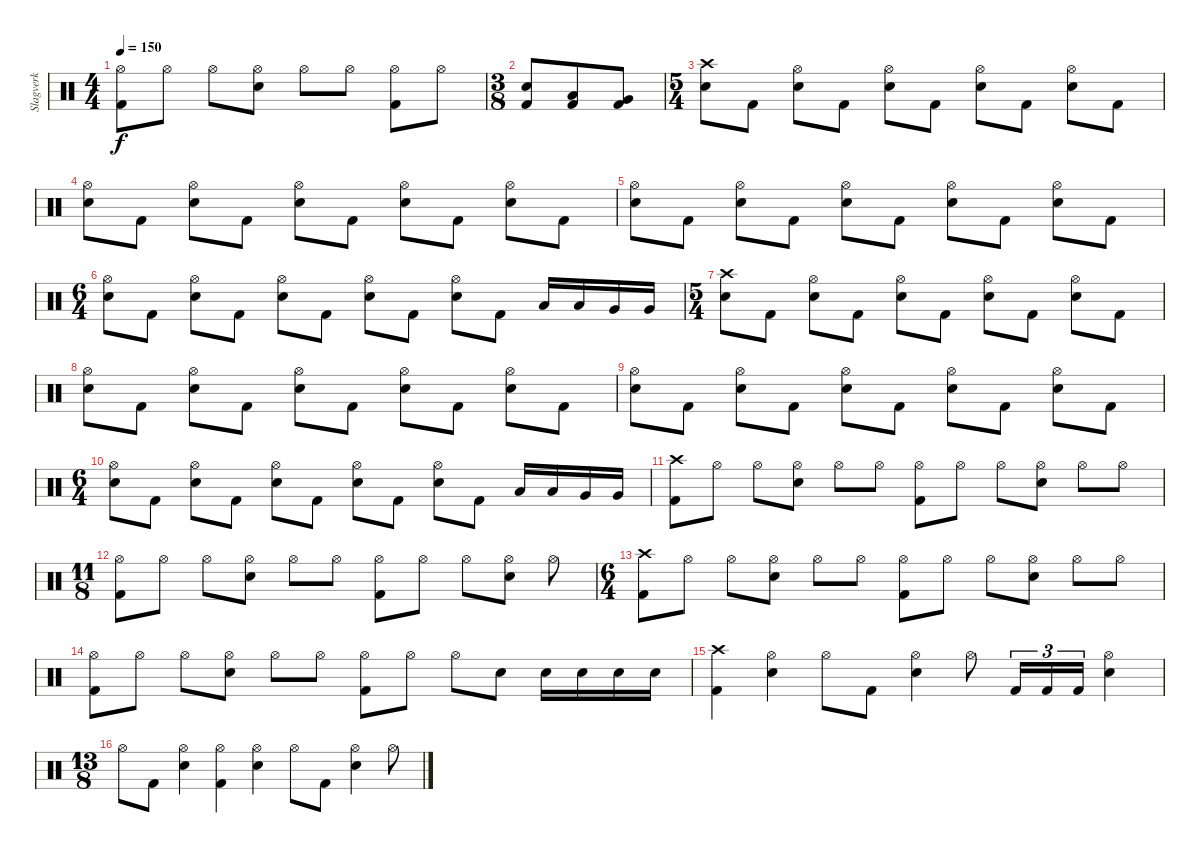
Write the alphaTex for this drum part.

\track ("Slagverk" "Slagverk") {instrument percussion}
\staff {score}
\articulation defaults
\ts (4 4)
\tempo 150
\clef neutral
\ks c
("Hi-Hat (open)" "Kick (hit) 2").8{dy f} "Hi-Hat (open)".8 "Hi-Hat (open)".8 ("Hi-Hat (open)" "Electric Snare (hit)").8 "Hi-Hat (open)".8 "Hi-Hat (open)".8 ("Hi-Hat (open)" "Kick (hit) 2").8 "Hi-Hat (open)".8 |
\ts (3 8)
("Electric Snare (hit)" "Kick (hit) 2").8 ("Low Tom (hit)" "Kick (hit) 2").8 ("Very Low Tom (hit)" "Kick (hit) 2").8 |
\ts (5 4)
("Crash high (hit)" "Electric Snare (hit)").8 "Kick (hit) 2".8 ("Hi-Hat (open)" "Electric Snare (hit)").8 "Kick (hit) 2".8 ("Hi-Hat (open)" "Electric Snare (hit)").8 "Kick (hit) 2".8 ("Hi-Hat (open)" "Electric Snare (hit)").8 "Kick (hit) 2".8 ("Hi-Hat (open)" "Electric Snare (hit)").8 "Kick (hit) 2".8 |
("Hi-Hat (open)" "Electric Snare (hit)").8 "Kick (hit) 2".8 ("Hi-Hat (open)" "Electric Snare (hit)").8 "Kick (hit) 2".8 ("Hi-Hat (open)" "Electric Snare (hit)").8 "Kick (hit) 2".8 ("Hi-Hat (open)" "Electric Snare (hit)").8 "Kick (hit) 2".8 ("Hi-Hat (open)" "Electric Snare (hit)").8 "Kick (hit) 2".8 |
("Hi-Hat (open)" "Electric Snare (hit)").8 "Kick (hit) 2".8 ("Hi-Hat (open)" "Electric Snare (hit)").8 "Kick (hit) 2".8 ("Hi-Hat (open)" "Electric Snare (hit)").8 "Kick (hit) 2".8 ("Hi-Hat (open)" "Electric Snare (hit)").8 "Kick (hit) 2".8 ("Hi-Hat (open)" "Electric Snare (hit)").8 "Kick (hit) 2".8 |
\ts (6 4)
("Hi-Hat (open)" "Electric Snare (hit)").8 "Kick (hit) 2".8 ("Hi-Hat (open)" "Electric Snare (hit)").8 "Kick (hit) 2".8 ("Hi-Hat (open)" "Electric Snare (hit)").8 "Kick (hit) 2".8 ("Hi-Hat (open)" "Electric Snare (hit)").8 "Kick (hit) 2".8 ("Hi-Hat (open)" "Electric Snare (hit)").8 "Kick (hit) 2".8 "Low Tom (hit)".16 "Low Tom (hit)".16 "Very Low Tom (hit)".16 "Very Low Tom (hit)".16 |
\ts (5 4)
("Crash high (hit)" "Electric Snare (hit)").8 "Kick (hit) 2".8 ("Hi-Hat (open)" "Electric Snare (hit)").8 "Kick (hit) 2".8 ("Hi-Hat (open)" "Electric Snare (hit)").8 "Kick (hit) 2".8 ("Hi-Hat (open)" "Electric Snare (hit)").8 "Kick (hit) 2".8 ("Hi-Hat (open)" "Electric Snare (hit)").8 "Kick (hit) 2".8 |
("Hi-Hat (open)" "Electric Snare (hit)").8 "Kick (hit) 2".8 ("Hi-Hat (open)" "Electric Snare (hit)").8 "Kick (hit) 2".8 ("Hi-Hat (open)" "Electric Snare (hit)").8 "Kick (hit) 2".8 ("Hi-Hat (open)" "Electric Snare (hit)").8 "Kick (hit) 2".8 ("Hi-Hat (open)" "Electric Snare (hit)").8 "Kick (hit) 2".8 |
("Hi-Hat (open)" "Electric Snare (hit)").8 "Kick (hit) 2".8 ("Hi-Hat (open)" "Electric Snare (hit)").8 "Kick (hit) 2".8 ("Hi-Hat (open)" "Electric Snare (hit)").8 "Kick (hit) 2".8 ("Hi-Hat (open)" "Electric Snare (hit)").8 "Kick (hit) 2".8 ("Hi-Hat (open)" "Electric Snare (hit)").8 "Kick (hit) 2".8 |
\ts (6 4)
("Hi-Hat (open)" "Electric Snare (hit)").8 "Kick (hit) 2".8 ("Hi-Hat (open)" "Electric Snare (hit)").8 "Kick (hit) 2".8 ("Hi-Hat (open)" "Electric Snare (hit)").8 "Kick (hit) 2".8 ("Hi-Hat (open)" "Electric Snare (hit)").8 "Kick (hit) 2".8 ("Hi-Hat (open)" "Electric Snare (hit)").8 "Kick (hit) 2".8 "Low Tom (hit)".16 "Low Tom (hit)".16 "Very Low Tom (hit)".16 "Very Low Tom (hit)".16 |
("Crash high (hit)" "Kick (hit) 2").8 "Hi-Hat (open)".8 "Hi-Hat (open)".8 ("Hi-Hat (open)" "Electric Snare (hit)").8 "Hi-Hat (open)".8 "Hi-Hat (open)".8 ("Hi-Hat (open)" "Kick (hit) 2").8 "Hi-Hat (open)".8 "Hi-Hat (open)".8 ("Hi-Hat (open)" "Electric Snare (hit)").8 "Hi-Hat (open)".8 "Hi-Hat (open)".8 |
\ts (11 8)
("Hi-Hat (open)" "Kick (hit) 2").8 "Hi-Hat (open)".8 "Hi-Hat (open)".8 ("Hi-Hat (open)" "Electric Snare (hit)").8 "Hi-Hat (open)".8 "Hi-Hat (open)".8 ("Hi-Hat (open)" "Kick (hit) 2").8 "Hi-Hat (open)".8 "Hi-Hat (open)".8 ("Hi-Hat (open)" "Electric Snare (hit)").8 "Hi-Hat (open)".8 |
\ts (6 4)
("Crash high (hit)" "Kick (hit) 2").8 "Hi-Hat (open)".8 "Hi-Hat (open)".8 ("Hi-Hat (open)" "Electric Snare (hit)").8 "Hi-Hat (open)".8 "Hi-Hat (open)".8 ("Hi-Hat (open)" "Kick (hit) 2").8 "Hi-Hat (open)".8 "Hi-Hat (open)".8 ("Hi-Hat (open)" "Electric Snare (hit)").8 "Hi-Hat (open)".8 "Hi-Hat (open)".8 |
("Hi-Hat (open)" "Kick (hit) 2").8 "Hi-Hat (open)".8 "Hi-Hat (open)".8 ("Hi-Hat (open)" "Electric Snare (hit)").8 "Hi-Hat (open)".8 "Hi-Hat (open)".8 ("Hi-Hat (open)" "Kick (hit) 2").8 "Hi-Hat (open)".8 "Hi-Hat (open)".8 "Electric Snare (hit)".8 "Electric Snare (hit)".16 "Electric Snare (hit)".16 "Electric Snare (hit)".16 "Electric Snare (hit)".16 |
("Crash high (hit)" "Kick (hit) 2").4 ("Hi-Hat (open)" "Electric Snare (hit)").4 "Hi-Hat (open)".8 "Kick (hit) 2".8 ("Hi-Hat (open)" "Electric Snare (hit)").4 "Hi-Hat (open)".8 "Kick (hit) 2".16{tu (3 2)} "Kick (hit) 2".16{tu (3 2)} "Kick (hit) 2".16{tu (3 2)} ("Hi-Hat (open)" "Electric Snare (hit)").4 |
\ts (13 8)
"Hi-Hat (open)".8 "Kick (hit) 2".8 ("Hi-Hat (open)" "Electric Snare (hit)").4 ("Hi-Hat (open)" "Kick (hit) 2").4 ("Hi-Hat (open)" "Electric Snare (hit)").4 "Hi-Hat (open)".8 "Kick (hit) 2".8 ("Hi-Hat (open)" "Electric Snare (hit)").4 "Hi-Hat (open)".8
